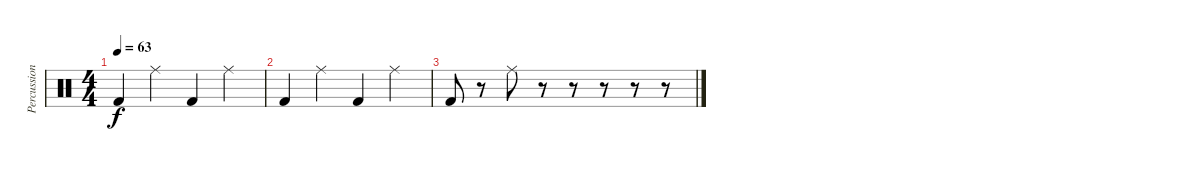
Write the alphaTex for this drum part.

\track ("Percussions" "Percussion") {instrument percussion}
\staff {score}
\articulation defaults
\ts (4 4)
\tempo 63
\clef neutral
\ks c "Kick (hit) 2".4{dy f} "Ride (middle)".4 "Kick (hit) 2".4 "Ride (middle)".4
|
"Kick (hit) 2".4 "Ride (middle)".4 "Kick (hit) 2".4 "Ride (middle)".4 |
"Kick (hit) 2".8 r.8 "Ride (middle)".8 r.8 r.8 r.8 r.8 r.8
